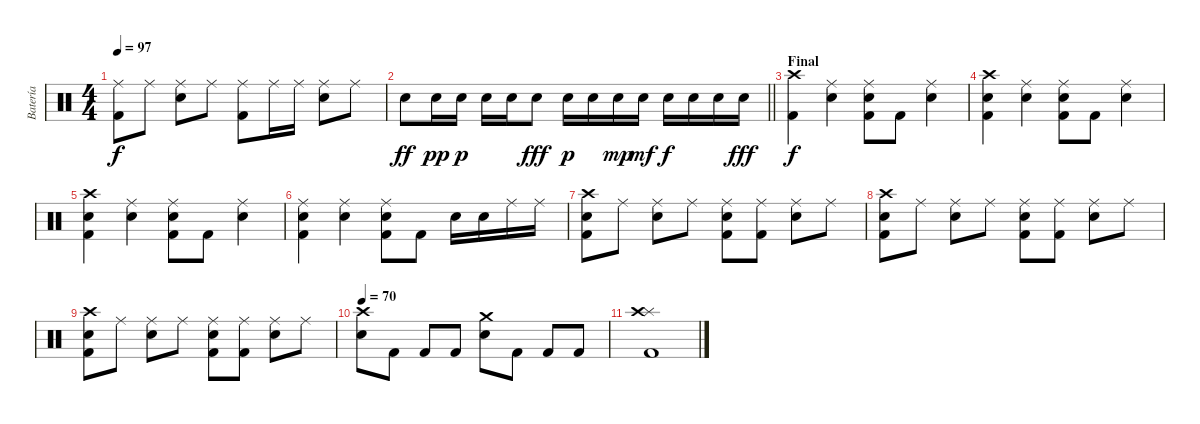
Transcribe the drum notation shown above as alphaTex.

\track ("Batería" "Batería") {instrument percussion}
\staff {score}
\articulation defaults
\ts (4 4)
\tempo 97
\clef neutral
\ks c
("Ride (middle)" "Kick (hit) 2").8{dy f} "Ride (middle)".8 ("Ride (middle)" "Snare (hit) 2").8 "Ride (middle)".8 ("Ride (middle)" "Kick (hit) 2").8 "Ride (middle)".16 "Ride (middle)".16 ("Ride (middle)" "Snare (hit) 2").8 "Ride (middle)".8 |
\barLineRight lightlight "Snare (hit) 2".8{dy ff} "Snare (hit) 2".16{dy pp} "Snare (hit) 2".16{dy p} "Snare (hit) 2".16 "Snare (hit) 2".16 "Snare (hit) 2".8{dy fff} "Snare (hit) 2".16{dy p} "Snare (hit) 2".16 "Snare (hit) 2".16{dy mp} "Snare (hit) 2".16{dy mf} "Snare (hit) 2".16{dy f} "Snare (hit) 2".16 "Snare (hit) 2".16 "Snare (hit) 2".16{dy fff}
|
\section ("" "Final")
("Crash high (hit)" "Kick (hit) 2").4{dy f} ("Ride (middle)" "Snare (hit) 2").4 ("Ride (middle)" "Snare (hit) 2" "Kick (hit) 2").8 "Kick (hit) 2".8 ("Ride (middle)" "Snare (hit) 2").4 |
("Crash high (hit)" "Snare (hit) 2" "Kick (hit) 2").4 ("Ride (middle)" "Snare (hit) 2").4 ("Ride (middle)" "Snare (hit) 2" "Kick (hit) 2").8 "Kick (hit) 2".8 ("Ride (middle)" "Snare (hit) 2").4 |
("Crash high (hit)" "Snare (hit) 2" "Kick (hit) 2").4 ("Ride (middle)" "Snare (hit) 2").4 ("Ride (middle)" "Snare (hit) 2" "Kick (hit) 2").8 "Kick (hit) 2".8 ("Ride (middle)" "Snare (hit) 2").4 |
("Ride (middle)" "Snare (hit) 2" "Kick (hit) 2").4 ("Ride (middle)" "Snare (hit) 2").4 ("Ride (middle)" "Snare (hit) 2" "Kick (hit) 2").8 "Kick (hit) 2".8 "Snare (hit) 2".16 "Snare (hit) 2".16 "Ride (middle)".16 "Ride (middle)".16 |
("Crash high (hit)" "Snare (hit) 2" "Kick (hit) 2").8 "Ride (middle)".8 ("Ride (middle)" "Snare (hit) 2").8 "Ride (middle)".8 ("Ride (middle)" "Snare (hit) 2" "Kick (hit) 2").8 ("Ride (middle)" "Kick (hit) 2").8 ("Ride (middle)" "Snare (hit) 2").8 "Ride (middle)".8 |
("Crash high (hit)" "Snare (hit) 2" "Kick (hit) 2").8 "Ride (middle)".8 ("Ride (middle)" "Snare (hit) 2").8 "Ride (middle)".8 ("Ride (middle)" "Snare (hit) 2" "Kick (hit) 2").8 ("Ride (middle)" "Kick (hit) 2").8 ("Ride (middle)" "Snare (hit) 2").8 "Ride (middle)".8 |
("Crash high (hit)" "Snare (hit) 2" "Kick (hit) 2").8 "Ride (middle)".8 ("Ride (middle)" "Snare (hit) 2").8 "Ride (middle)".8 ("Ride (middle)" "Snare (hit) 2" "Kick (hit) 2").8 ("Ride (middle)" "Kick (hit) 2").8 ("Ride (middle)" "Snare (hit) 2").8 "Ride (middle)".8 |
\tempo 70
("Crash high (hit)" "Snare (hit) 2").8 "Kick (hit) 2".8 "Kick (hit) 2".8 "Kick (hit) 2".8 ("Crash medium (hit)" "Snare (hit) 2").8 "Kick (hit) 2".8 "Kick (hit) 2".8 "Kick (hit) 2".8 |
("Splash (hit)" "Crash high (hit)" "Kick (hit) 2").1
